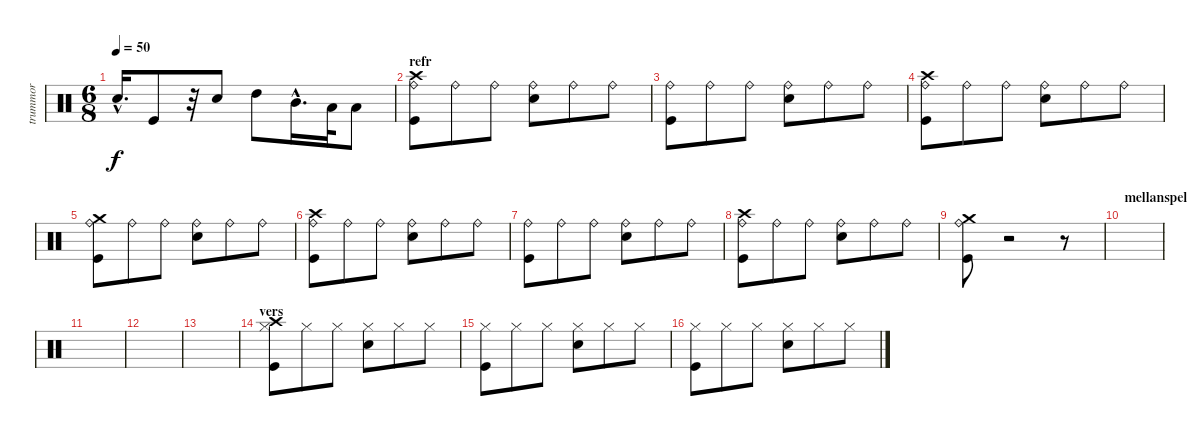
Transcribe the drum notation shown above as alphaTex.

\track ("trummor" "trummor") {instrument percussion}
\staff {score}
\articulation defaults
\ts (6 8)
\tempo 50
\clef neutral
\ks c "Electric Snare (hit)"{hac}.16{d dy f} "Kick (hit)".8
r.32 "Electric Snare (hit)".8 "High Tom (hit)".8 "Mid Tom (hit)"{hac}.16{d} "Low Tom (hit)".32 "Low Floor Tom (hit)".8 |
\section ("" "refr")
("Kick (hit)" "Ride (bell)" "Crash high (hit)").8 "Ride (bell)".8 "Ride (bell)".8 ("Electric Snare (hit)" "Ride (bell)").8 "Ride (bell)".8 "Ride (bell)".8 |
("Kick (hit)" "Ride (bell)").8 "Ride (bell)".8 "Ride (bell)".8 ("Electric Snare (hit)" "Ride (bell)").8 "Ride (bell)".8 "Ride (bell)".8 |
("Kick (hit)" "Ride (bell)" "Crash high (hit)").8 "Ride (bell)".8 "Ride (bell)".8 ("Electric Snare (hit)" "Ride (bell)").8 "Ride (bell)".8 "Ride (bell)".8 |
("Kick (hit)" "Ride (bell)" "Crash medium (hit)").8 "Ride (bell)".8 "Ride (bell)".8 ("Electric Snare (hit)" "Ride (bell)").8 "Ride (bell)".8 "Ride (bell)".8 |
("Kick (hit)" "Ride (bell)" "Crash high (hit)").8 "Ride (bell)".8 "Ride (bell)".8 ("Electric Snare (hit)" "Ride (bell)").8 "Ride (bell)".8 "Ride (bell)".8 |
("Kick (hit)" "Ride (bell)").8 "Ride (bell)".8 "Ride (bell)".8 ("Electric Snare (hit)" "Ride (bell)").8 "Ride (bell)".8 "Ride (bell)".8 |
("Kick (hit)" "Ride (bell)" "Crash high (hit)").8 "Ride (bell)".8 "Ride (bell)".8 ("Electric Snare (hit)" "Ride (bell)").8 "Ride (bell)".8 "Ride (bell)".8 |
("Kick (hit)" "Ride (bell)" "Crash medium (hit)").8 r.2 r.8 |
\section ("" "mellanspel")
|
|
|
|
\section ("" "vers")
("Kick (hit)" "Hi-Hat (closed)" "Crash high (hit)").8 "Hi-Hat (closed)".8 "Hi-Hat (closed)".8 ("Electric Snare (hit)" "Hi-Hat (closed)").8 "Hi-Hat (closed)".8 "Hi-Hat (closed)".8 |
("Kick (hit)" "Hi-Hat (closed)").8 "Hi-Hat (closed)".8 "Hi-Hat (closed)".8 ("Electric Snare (hit)" "Hi-Hat (closed)").8 "Hi-Hat (closed)".8 "Hi-Hat (closed)".8 |
("Kick (hit)" "Hi-Hat (closed)").8 "Hi-Hat (closed)".8 "Hi-Hat (closed)".8 ("Electric Snare (hit)" "Hi-Hat (closed)").8 "Hi-Hat (closed)".8 "Hi-Hat (closed)".8
